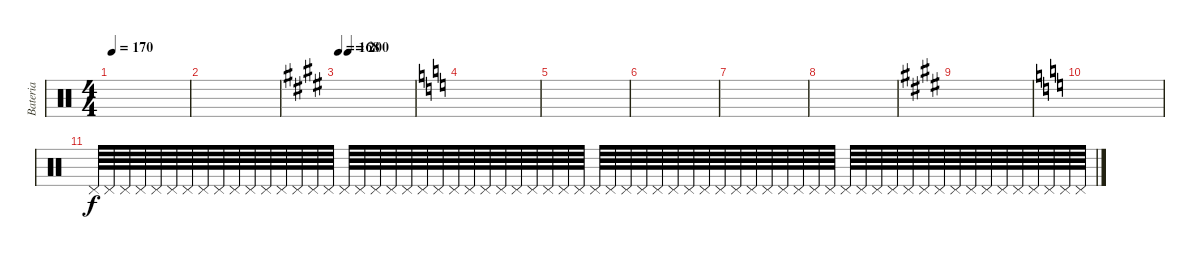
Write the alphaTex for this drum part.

\track ("Bateria" "Bateria") {instrument percussion}
\staff {score}
\articulation defaults
\ts (4 4)
\tempo 170
\clef neutral
\ks c
|
|
\tempo (200 0.125)
\tempo 168
\ks e
|
\ks c
|
|
|
|
|
\ks e
|
\ks c
|
"Pedal Hi-Hat (hit)".64{volume 0} "Pedal Hi-Hat (hit)".64{volume 16} "Pedal Hi-Hat (hit)".64 "Pedal Hi-Hat (hit)".64 "Pedal Hi-Hat (hit)".64 "Pedal Hi-Hat (hit)".64 "Pedal Hi-Hat (hit)".64 "Pedal Hi-Hat (hit)".64 "Pedal Hi-Hat (hit)".64 "Pedal Hi-Hat (hit)".64 "Pedal Hi-Hat (hit)".64 "Pedal Hi-Hat (hit)".64 "Pedal Hi-Hat (hit)".64 "Pedal Hi-Hat (hit)".64 "Pedal Hi-Hat (hit)".64 "Pedal Hi-Hat (hit)".64 "Pedal Hi-Hat (hit)".64 "Pedal Hi-Hat (hit)".64 "Pedal Hi-Hat (hit)".64 "Pedal Hi-Hat (hit)".64 "Pedal Hi-Hat (hit)".64 "Pedal Hi-Hat (hit)".64 "Pedal Hi-Hat (hit)".64 "Pedal Hi-Hat (hit)".64 "Pedal Hi-Hat (hit)".64 "Pedal Hi-Hat (hit)".64 "Pedal Hi-Hat (hit)".64 "Pedal Hi-Hat (hit)".64 "Pedal Hi-Hat (hit)".64 "Pedal Hi-Hat (hit)".64 "Pedal Hi-Hat (hit)".64 "Pedal Hi-Hat (hit)".64 "Pedal Hi-Hat (hit)".64 "Pedal Hi-Hat (hit)".64{volume 0} "Pedal Hi-Hat (hit)".64 "Pedal Hi-Hat (hit)".64 "Pedal Hi-Hat (hit)".64 "Pedal Hi-Hat (hit)".64 "Pedal Hi-Hat (hit)".64 "Pedal Hi-Hat (hit)".64 "Pedal Hi-Hat (hit)".64 "Pedal Hi-Hat (hit)".64 "Pedal Hi-Hat (hit)".64 "Pedal Hi-Hat (hit)".64 "Pedal Hi-Hat (hit)".64 "Pedal Hi-Hat (hit)".64 "Pedal Hi-Hat (hit)".64 "Pedal Hi-Hat (hit)".64 "Pedal Hi-Hat (hit)".64 "Pedal Hi-Hat (hit)".64 "Pedal Hi-Hat (hit)".64 "Pedal Hi-Hat (hit)".64 "Pedal Hi-Hat (hit)".64 "Pedal Hi-Hat (hit)".64 "Pedal Hi-Hat (hit)".64 "Pedal Hi-Hat (hit)".64 "Pedal Hi-Hat (hit)".64 "Pedal Hi-Hat (hit)".64 "Pedal Hi-Hat (hit)".64 "Pedal Hi-Hat (hit)".64 "Pedal Hi-Hat (hit)".64 "Pedal Hi-Hat (hit)".64 "Pedal Hi-Hat (hit)".64 "Pedal Hi-Hat (hit)".64
